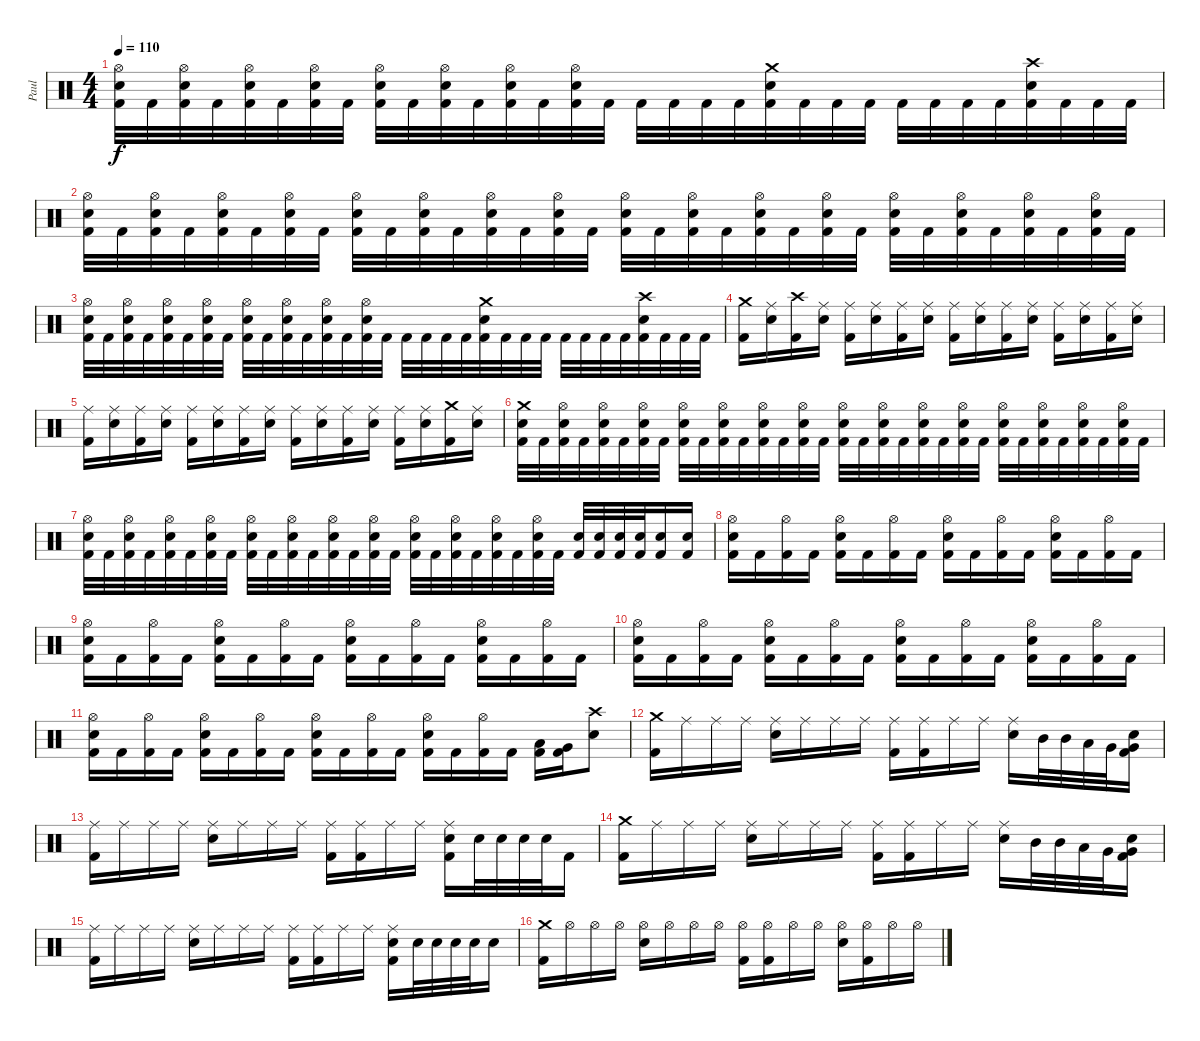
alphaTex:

\track ("Paul" "Paul") {solo instrument percussion}
\staff {score}
\articulation defaults
\ts (4 4)
\tempo 110
\clef neutral
\ks c
("Hi-Hat (open)" "Electric Snare (hit)" "Kick (hit) 2").32{dy f} "Kick (hit) 2".32 ("Hi-Hat (open)" "Electric Snare (hit)" "Kick (hit) 2").32 "Kick (hit) 2".32 ("Hi-Hat (open)" "Electric Snare (hit)" "Kick (hit) 2").32 "Kick (hit) 2".32 ("Hi-Hat (open)" "Electric Snare (hit)" "Kick (hit) 2").32 "Kick (hit) 2".32 ("Hi-Hat (open)" "Electric Snare (hit)" "Kick (hit) 2").32 "Kick (hit) 2".32 ("Hi-Hat (open)" "Electric Snare (hit)" "Kick (hit) 2").32 "Kick (hit) 2".32 ("Hi-Hat (open)" "Electric Snare (hit)" "Kick (hit) 2").32 "Kick (hit) 2".32 ("Hi-Hat (open)" "Electric Snare (hit)" "Kick (hit) 2").32 "Kick (hit) 2".32 "Kick (hit) 2".32 "Kick (hit) 2".32 "Kick (hit) 2".32 "Kick (hit) 2".32 ("Crash medium (hit)" "Electric Snare (hit)" "Kick (hit) 2").32 "Kick (hit) 2".32 "Kick (hit) 2".32 "Kick (hit) 2".32 "Kick (hit) 2".32 "Kick (hit) 2".32 "Kick (hit) 2".32 "Kick (hit) 2".32 ("Crash high (hit)" "Electric Snare (hit)" "Kick (hit) 2").32 "Kick (hit) 2".32 "Kick (hit) 2".32 "Kick (hit) 2".32 |
("Hi-Hat (open)" "Electric Snare (hit)" "Kick (hit) 2").32 "Kick (hit) 2".32 ("Hi-Hat (open)" "Electric Snare (hit)" "Kick (hit) 2").32 "Kick (hit) 2".32 ("Hi-Hat (open)" "Electric Snare (hit)" "Kick (hit) 2").32 "Kick (hit) 2".32 ("Hi-Hat (open)" "Electric Snare (hit)" "Kick (hit) 2").32 "Kick (hit) 2".32 ("Hi-Hat (open)" "Electric Snare (hit)" "Kick (hit) 2").32 "Kick (hit) 2".32 ("Hi-Hat (open)" "Electric Snare (hit)" "Kick (hit) 2").32 "Kick (hit) 2".32 ("Hi-Hat (open)" "Electric Snare (hit)" "Kick (hit) 2").32 "Kick (hit) 2".32 ("Hi-Hat (open)" "Electric Snare (hit)" "Kick (hit) 2").32 "Kick (hit) 2".32 ("Hi-Hat (open)" "Electric Snare (hit)" "Kick (hit) 2").32 "Kick (hit) 2".32 ("Hi-Hat (open)" "Electric Snare (hit)" "Kick (hit) 2").32 "Kick (hit) 2".32 ("Hi-Hat (open)" "Electric Snare (hit)" "Kick (hit) 2").32 "Kick (hit) 2".32 ("Hi-Hat (open)" "Electric Snare (hit)" "Kick (hit) 2").32 "Kick (hit) 2".32 ("Hi-Hat (open)" "Electric Snare (hit)" "Kick (hit) 2").32 "Kick (hit) 2".32 ("Hi-Hat (open)" "Electric Snare (hit)" "Kick (hit) 2").32 "Kick (hit) 2".32 ("Hi-Hat (open)" "Electric Snare (hit)" "Kick (hit) 2").32 "Kick (hit) 2".32 ("Hi-Hat (open)" "Electric Snare (hit)" "Kick (hit) 2").32 "Kick (hit) 2".32 |
("Hi-Hat (open)" "Electric Snare (hit)" "Kick (hit) 2").32 "Kick (hit) 2".32 ("Hi-Hat (open)" "Electric Snare (hit)" "Kick (hit) 2").32 "Kick (hit) 2".32 ("Hi-Hat (open)" "Electric Snare (hit)" "Kick (hit) 2").32 "Kick (hit) 2".32 ("Hi-Hat (open)" "Electric Snare (hit)" "Kick (hit) 2").32 "Kick (hit) 2".32 ("Hi-Hat (open)" "Electric Snare (hit)" "Kick (hit) 2").32 "Kick (hit) 2".32 ("Hi-Hat (open)" "Electric Snare (hit)" "Kick (hit) 2").32 "Kick (hit) 2".32 ("Hi-Hat (open)" "Electric Snare (hit)" "Kick (hit) 2").32 "Kick (hit) 2".32 ("Hi-Hat (open)" "Electric Snare (hit)" "Kick (hit) 2").32 "Kick (hit) 2".32 "Kick (hit) 2".32 "Kick (hit) 2".32 "Kick (hit) 2".32 "Kick (hit) 2".32 ("Crash medium (hit)" "Electric Snare (hit)" "Kick (hit) 2").32 "Kick (hit) 2".32 "Kick (hit) 2".32 "Kick (hit) 2".32 "Kick (hit) 2".32 "Kick (hit) 2".32 "Kick (hit) 2".32 "Kick (hit) 2".32 ("Crash high (hit)" "Electric Snare (hit)" "Kick (hit) 2").32 "Kick (hit) 2".32 "Kick (hit) 2".32 "Kick (hit) 2".32 |
("Crash medium (hit)" "Kick (hit) 2").16 ("Ride (middle)" "Electric Snare (hit)").16 ("Crash high (hit)" "Kick (hit) 2").16 ("Ride (middle)" "Electric Snare (hit)").16 ("Ride (middle)" "Kick (hit) 2").16 ("Ride (middle)" "Electric Snare (hit)").16 ("Ride (middle)" "Kick (hit) 2").16 ("Ride (middle)" "Electric Snare (hit)").16 ("Ride (middle)" "Kick (hit) 2").16 ("Ride (middle)" "Electric Snare (hit)").16 ("Ride (middle)" "Kick (hit) 2").16 ("Ride (middle)" "Electric Snare (hit)").16 ("Ride (middle)" "Kick (hit) 2").16 ("Ride (middle)" "Electric Snare (hit)").16 ("Ride (middle)" "Kick (hit) 2").16 ("Ride (middle)" "Electric Snare (hit)").16 |
("Ride (middle)" "Kick (hit) 2").16 ("Ride (middle)" "Electric Snare (hit)").16 ("Ride (middle)" "Kick (hit) 2").16 ("Ride (middle)" "Electric Snare (hit)").16 ("Ride (middle)" "Kick (hit) 2").16 ("Ride (middle)" "Electric Snare (hit)").16 ("Ride (middle)" "Kick (hit) 2").16 ("Ride (middle)" "Electric Snare (hit)").16 ("Ride (middle)" "Kick (hit) 2").16 ("Ride (middle)" "Electric Snare (hit)").16 ("Ride (middle)" "Kick (hit) 2").16 ("Ride (middle)" "Electric Snare (hit)").16 ("Ride (middle)" "Kick (hit) 2").16 ("Ride (middle)" "Electric Snare (hit)").16 ("Crash medium (hit)" "Kick (hit) 2").16 ("Ride (middle)" "Electric Snare (hit)").16 |
("Crash medium (hit)" "Electric Snare (hit)" "Kick (hit) 2").32 "Kick (hit) 2".32 ("Hi-Hat (open)" "Electric Snare (hit)" "Kick (hit) 2").32 "Kick (hit) 2".32 ("Hi-Hat (open)" "Electric Snare (hit)" "Kick (hit) 2").32 "Kick (hit) 2".32 ("Hi-Hat (open)" "Electric Snare (hit)" "Kick (hit) 2").32 "Kick (hit) 2".32 ("Hi-Hat (open)" "Electric Snare (hit)" "Kick (hit) 2").32 "Kick (hit) 2".32 ("Hi-Hat (open)" "Electric Snare (hit)" "Kick (hit) 2").32 "Kick (hit) 2".32 ("Hi-Hat (open)" "Electric Snare (hit)" "Kick (hit) 2").32 "Kick (hit) 2".32 ("Hi-Hat (open)" "Electric Snare (hit)" "Kick (hit) 2").32 "Kick (hit) 2".32 ("Hi-Hat (open)" "Electric Snare (hit)" "Kick (hit) 2").32 "Kick (hit) 2".32 ("Hi-Hat (open)" "Electric Snare (hit)" "Kick (hit) 2").32 "Kick (hit) 2".32 ("Hi-Hat (open)" "Electric Snare (hit)" "Kick (hit) 2").32 "Kick (hit) 2".32 ("Hi-Hat (open)" "Electric Snare (hit)" "Kick (hit) 2").32 "Kick (hit) 2".32 ("Hi-Hat (open)" "Electric Snare (hit)" "Kick (hit) 2").32 "Kick (hit) 2".32 ("Hi-Hat (open)" "Electric Snare (hit)" "Kick (hit) 2").32 "Kick (hit) 2".32 ("Hi-Hat (open)" "Electric Snare (hit)" "Kick (hit) 2").32 "Kick (hit) 2".32 ("Hi-Hat (open)" "Electric Snare (hit)" "Kick (hit) 2").32 "Kick (hit) 2".32 |
("Hi-Hat (open)" "Electric Snare (hit)" "Kick (hit) 2").32 "Kick (hit) 2".32 ("Hi-Hat (open)" "Electric Snare (hit)" "Kick (hit) 2").32 "Kick (hit) 2".32 ("Hi-Hat (open)" "Electric Snare (hit)" "Kick (hit) 2").32 "Kick (hit) 2".32 ("Hi-Hat (open)" "Electric Snare (hit)" "Kick (hit) 2").32 "Kick (hit) 2".32 ("Hi-Hat (open)" "Electric Snare (hit)" "Kick (hit) 2").32 "Kick (hit) 2".32 ("Hi-Hat (open)" "Electric Snare (hit)" "Kick (hit) 2").32 "Kick (hit) 2".32 ("Hi-Hat (open)" "Electric Snare (hit)" "Kick (hit) 2").32 "Kick (hit) 2".32 ("Hi-Hat (open)" "Electric Snare (hit)" "Kick (hit) 2").32 "Kick (hit) 2".32 ("Hi-Hat (open)" "Electric Snare (hit)" "Kick (hit) 2").32 "Kick (hit) 2".32 ("Hi-Hat (open)" "Electric Snare (hit)" "Kick (hit) 2").32 "Kick (hit) 2".32 ("Hi-Hat (open)" "Electric Snare (hit)" "Kick (hit) 2").32 "Kick (hit) 2".32 ("Hi-Hat (open)" "Electric Snare (hit)" "Kick (hit) 2").32 "Kick (hit) 2".32 ("Electric Snare (hit)" "Kick (hit) 2").32 ("Electric Snare (hit)" "Kick (hit) 2").32 ("Electric Snare (hit)" "Kick (hit) 2").32 ("Electric Snare (hit)" "Kick (hit) 2").32 ("Electric Snare (hit)" "Kick (hit) 2").16 ("Electric Snare (hit)" "Kick (hit) 2").16 |
("Hi-Hat (open)" "Electric Snare (hit)" "Kick (hit) 2").16 "Kick (hit) 2".16 ("Hi-Hat (open)" "Kick (hit) 2").16 "Kick (hit) 2".16 ("Hi-Hat (open)" "Electric Snare (hit)" "Kick (hit) 2").16 "Kick (hit) 2".16 ("Hi-Hat (open)" "Kick (hit) 2").16 "Kick (hit) 2".16 ("Hi-Hat (open)" "Electric Snare (hit)" "Kick (hit) 2").16 "Kick (hit) 2".16 ("Hi-Hat (open)" "Kick (hit) 2").16 "Kick (hit) 2".16 ("Hi-Hat (open)" "Electric Snare (hit)" "Kick (hit) 2").16 "Kick (hit) 2".16 ("Hi-Hat (open)" "Kick (hit) 2").16 "Kick (hit) 2".16 |
("Hi-Hat (open)" "Electric Snare (hit)" "Kick (hit) 2").16 "Kick (hit) 2".16 ("Hi-Hat (open)" "Kick (hit) 2").16 "Kick (hit) 2".16 ("Hi-Hat (open)" "Electric Snare (hit)" "Kick (hit) 2").16 "Kick (hit) 2".16 ("Hi-Hat (open)" "Kick (hit) 2").16 "Kick (hit) 2".16 ("Hi-Hat (open)" "Electric Snare (hit)" "Kick (hit) 2").16 "Kick (hit) 2".16 ("Hi-Hat (open)" "Kick (hit) 2").16 "Kick (hit) 2".16 ("Hi-Hat (open)" "Electric Snare (hit)" "Kick (hit) 2").16 "Kick (hit) 2".16 ("Hi-Hat (open)" "Kick (hit) 2").16 "Kick (hit) 2".16 |
("Hi-Hat (open)" "Electric Snare (hit)" "Kick (hit) 2").16 "Kick (hit) 2".16 ("Hi-Hat (open)" "Kick (hit) 2").16 "Kick (hit) 2".16 ("Hi-Hat (open)" "Electric Snare (hit)" "Kick (hit) 2").16 "Kick (hit) 2".16 ("Hi-Hat (open)" "Kick (hit) 2").16 "Kick (hit) 2".16 ("Hi-Hat (open)" "Electric Snare (hit)" "Kick (hit) 2").16 "Kick (hit) 2".16 ("Hi-Hat (open)" "Kick (hit) 2").16 "Kick (hit) 2".16 ("Hi-Hat (open)" "Electric Snare (hit)" "Kick (hit) 2").16 "Kick (hit) 2".16 ("Hi-Hat (open)" "Kick (hit) 2").16 "Kick (hit) 2".16 |
("Hi-Hat (open)" "Electric Snare (hit)" "Kick (hit) 2").16 "Kick (hit) 2".16 ("Hi-Hat (open)" "Kick (hit) 2").16 "Kick (hit) 2".16 ("Hi-Hat (open)" "Electric Snare (hit)" "Kick (hit) 2").16 "Kick (hit) 2".16 ("Hi-Hat (open)" "Kick (hit) 2").16 "Kick (hit) 2".16 ("Hi-Hat (open)" "Electric Snare (hit)" "Kick (hit) 2").16 "Kick (hit) 2".16 ("Hi-Hat (open)" "Kick (hit) 2").16 "Kick (hit) 2".16 ("Hi-Hat (open)" "Electric Snare (hit)" "Kick (hit) 2").16 "Kick (hit) 2".16 ("Hi-Hat (open)" "Kick (hit) 2").16 "Kick (hit) 2".16 ("Low Tom (hit)" "Kick (hit) 2").16 ("Very Low Tom (hit)" "Kick (hit) 2").16 ("Crash high (hit)" "Electric Snare (hit)").8 |
("Crash medium (hit)" "Kick (hit) 2").16 "Ride (middle)".16 "Ride (middle)".16 "Ride (middle)".16 ("Ride (middle)" "Electric Snare (hit)").16 "Ride (middle)".16 "Ride (middle)".16 "Ride (middle)".16 ("Ride (middle)" "Kick (hit) 2").16 ("Ride (middle)" "Kick (hit) 2").16 "Ride (middle)".16 "Ride (middle)".16 ("Ride (middle)" "Electric Snare (hit)").16 "Mid Tom (hit)".32 "Mid Tom (hit)".32 "Low Tom (hit)".32 "Very Low Tom (hit)".32 ("Very Low Tom (hit)" "Electric Snare (hit)" "Kick (hit) 2").16 |
("Ride (middle)" "Kick (hit) 2").16 "Ride (middle)".16 "Ride (middle)".16 "Ride (middle)".16 ("Ride (middle)" "Electric Snare (hit)").16 "Ride (middle)".16 "Ride (middle)".16 "Ride (middle)".16 ("Ride (middle)" "Kick (hit) 2").16 ("Ride (middle)" "Kick (hit) 2").16 "Ride (middle)".16 "Ride (middle)".16 ("Ride (middle)" "Electric Snare (hit)" "Kick (hit) 2").16 "Electric Snare (hit)".32 "Electric Snare (hit)".32 "Electric Snare (hit)".32 "Electric Snare (hit)".32 "Kick (hit) 2".16 |
("Crash medium (hit)" "Kick (hit) 2").16 "Ride (middle)".16 "Ride (middle)".16 "Ride (middle)".16 ("Ride (middle)" "Electric Snare (hit)").16 "Ride (middle)".16 "Ride (middle)".16 "Ride (middle)".16 ("Ride (middle)" "Kick (hit) 2").16 ("Ride (middle)" "Kick (hit) 2").16 "Ride (middle)".16 "Ride (middle)".16 ("Ride (middle)" "Electric Snare (hit)").16 "Mid Tom (hit)".32 "Mid Tom (hit)".32 "Low Tom (hit)".32 "Very Low Tom (hit)".32 ("Very Low Tom (hit)" "Electric Snare (hit)" "Kick (hit) 2").16 |
("Ride (middle)" "Kick (hit) 2").16 "Ride (middle)".16 "Ride (middle)".16 "Ride (middle)".16 ("Ride (middle)" "Electric Snare (hit)").16 "Ride (middle)".16 "Ride (middle)".16 "Ride (middle)".16 ("Ride (middle)" "Kick (hit) 2").16 ("Ride (middle)" "Kick (hit) 2").16 "Ride (middle)".16 "Ride (middle)".16 ("Ride (middle)" "Electric Snare (hit)" "Kick (hit) 2").16 "Electric Snare (hit)".32 "Electric Snare (hit)".32 "Electric Snare (hit)".32 "Electric Snare (hit)".32 "Electric Snare (hit)".16 |
("Crash medium (hit)" "Kick (hit) 2").16 "Hi-Hat (open)".16 "Hi-Hat (open)".16 "Hi-Hat (open)".16 ("Hi-Hat (open)" "Electric Snare (hit)").16 "Hi-Hat (open)".16 "Hi-Hat (open)".16 "Hi-Hat (open)".16 ("Hi-Hat (open)" "Kick (hit) 2").16 ("Hi-Hat (open)" "Kick (hit) 2").16 "Hi-Hat (open)".16 "Hi-Hat (open)".16 ("Hi-Hat (open)" "Electric Snare (hit)").16 ("Hi-Hat (open)" "Kick (hit) 2").16 "Hi-Hat (open)".16 "Hi-Hat (open)".16
